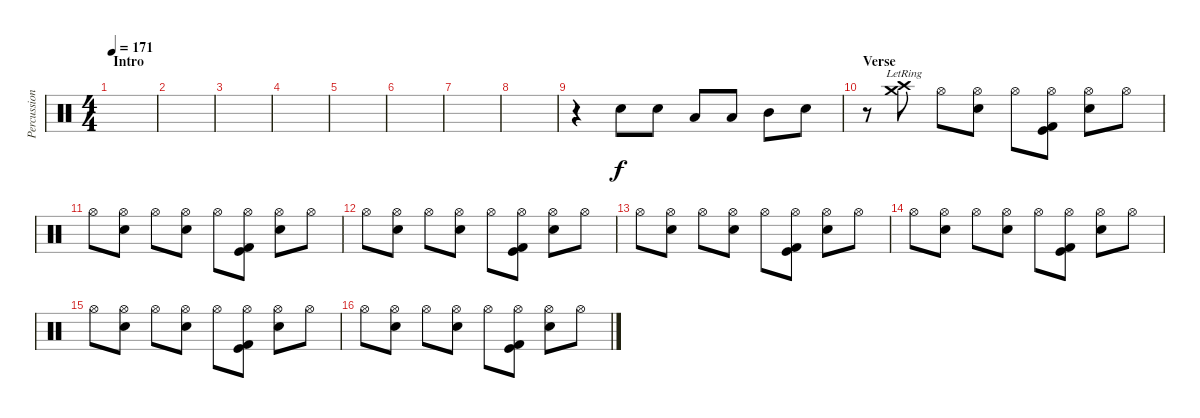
\track ("Percussion" "Percussion") {instrument percussion}
\staff {score}
\articulation defaults
\ts (4 4)
\section ("" "Intro")
\tempo 171
\clef neutral
\ks c
|
|
|
|
|
|
|
|
r.4 "Snare (hit) 2".8 "Snare (hit) 2".8 "Low Floor Tom (hit)".8 "Low Floor Tom (hit)".8 "Mid Tom (hit)".8 "Snare (hit) 2".8 |
\section ("" "Verse")
r.8 ("Crash medium (hit)"{lr} "Crash high (hit)"{lr}).8 "Hi-Hat (open)".8 ("Hi-Hat (open)" "Snare (hit) 2").8 "Hi-Hat (open)".8 ("Hi-Hat (open)" "Kick (hit)" "Kick (hit) 2").8 ("Hi-Hat (open)" "Snare (hit) 2").8 "Hi-Hat (open)".8 |
"Hi-Hat (open)".8 ("Hi-Hat (open)" "Snare (hit) 2").8 "Hi-Hat (open)".8 ("Hi-Hat (open)" "Snare (hit) 2").8 "Hi-Hat (open)".8 ("Hi-Hat (open)" "Kick (hit)" "Kick (hit) 2").8 ("Hi-Hat (open)" "Snare (hit) 2").8 "Hi-Hat (open)".8 |
"Hi-Hat (open)".8 ("Hi-Hat (open)" "Snare (hit) 2").8 "Hi-Hat (open)".8 ("Hi-Hat (open)" "Snare (hit) 2").8 "Hi-Hat (open)".8 ("Hi-Hat (open)" "Kick (hit)" "Kick (hit) 2").8 ("Hi-Hat (open)" "Snare (hit) 2").8 "Hi-Hat (open)".8 |
"Hi-Hat (open)".8 ("Hi-Hat (open)" "Snare (hit) 2").8 "Hi-Hat (open)".8 ("Hi-Hat (open)" "Snare (hit) 2").8 "Hi-Hat (open)".8 ("Hi-Hat (open)" "Kick (hit)" "Kick (hit) 2").8 ("Hi-Hat (open)" "Snare (hit) 2").8 "Hi-Hat (open)".8 |
"Hi-Hat (open)".8 ("Hi-Hat (open)" "Snare (hit) 2").8 "Hi-Hat (open)".8 ("Hi-Hat (open)" "Snare (hit) 2").8 "Hi-Hat (open)".8 ("Hi-Hat (open)" "Kick (hit)" "Kick (hit) 2").8 ("Hi-Hat (open)" "Snare (hit) 2").8 "Hi-Hat (open)".8 |
"Hi-Hat (open)".8 ("Hi-Hat (open)" "Snare (hit) 2").8 "Hi-Hat (open)".8 ("Hi-Hat (open)" "Snare (hit) 2").8 "Hi-Hat (open)".8 ("Hi-Hat (open)" "Kick (hit)" "Kick (hit) 2").8 ("Hi-Hat (open)" "Snare (hit) 2").8 "Hi-Hat (open)".8 |
"Hi-Hat (open)".8 ("Hi-Hat (open)" "Snare (hit) 2").8 "Hi-Hat (open)".8 ("Hi-Hat (open)" "Snare (hit) 2").8 "Hi-Hat (open)".8 ("Hi-Hat (open)" "Kick (hit)" "Kick (hit) 2").8 ("Hi-Hat (open)" "Snare (hit) 2").8 "Hi-Hat (open)".8
